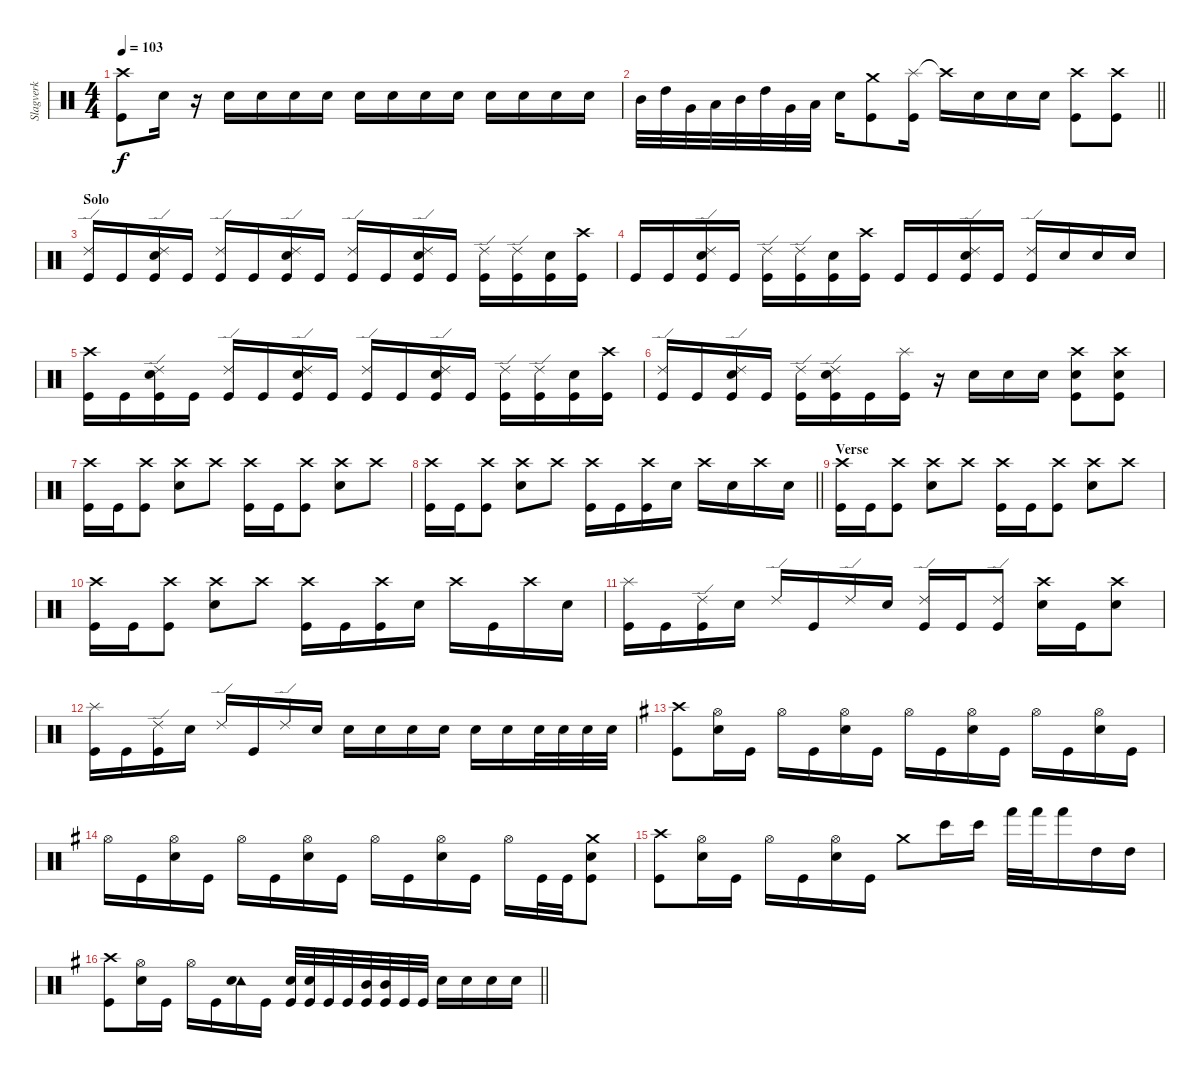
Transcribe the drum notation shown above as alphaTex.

\track ("Slagverk" "Slagverk") {instrument percussion}
\staff {score}
\articulation defaults
\ts (4 4)
\tempo 103
\clef neutral
\ks c
("Crash high (hit)" "Kick (hit)").8{dy f} "Electric Snare (hit)".16 r.16 "Electric Snare (hit)".16 "Electric Snare (hit)".16 "Electric Snare (hit)".16 "Electric Snare (hit)".16 "Electric Snare (hit)".16 "Electric Snare (hit)".16 "Electric Snare (hit)".16 "Electric Snare (hit)".16 "Electric Snare (hit)".16 "Electric Snare (hit)".16 "Electric Snare (hit)".16 "Electric Snare (hit)".16 |
\barLineRight lightlight "Mid Tom (hit)".32 "High Tom (hit)".32 "Very Low Tom (hit)".32 "Low Floor Tom (hit)".32 "Mid Tom (hit)".32 "High Tom (hit)".32 "Very Low Tom (hit)".32 "Low Floor Tom (hit)".32 "Electric Snare (hit)".16
("Crash medium (hit)" "Kick (hit)").8 ("Splash (hit)" "Kick (hit)").16 "Crash high (hit)"{t}.16 "Electric Snare (hit)".16 "Electric Snare (hit)".16 "Electric Snare (hit)".16 ("Crash high (hit)" "Kick (hit)").8 ("Crash high (hit)" "Kick (hit)").8 |
\section ("" "Solo")
("Ride (edge) 2" "Kick (hit)").16 "Kick (hit)".16 ("Ride (edge) 2" "Electric Snare (hit)" "Kick (hit)").16 "Kick (hit)".16 ("Ride (edge) 2" "Kick (hit)").16 "Kick (hit)".16 ("Ride (edge) 2" "Electric Snare (hit)" "Kick (hit)").16 "Kick (hit)".16 ("Ride (edge) 2" "Kick (hit)").16 "Kick (hit)".16 ("Ride (edge) 2" "Electric Snare (hit)" "Kick (hit)").16 "Kick (hit)".16 ("Ride (edge) 2" "Kick (hit)").16 ("Ride (edge) 2" "Kick (hit)").16 ("Electric Snare (hit)" "Kick (hit)").16 ("Crash high (hit)" "Kick (hit)").16 |
"Kick (hit)".16 "Kick (hit)".16 ("Ride (edge) 2" "Electric Snare (hit)" "Kick (hit)").16 "Kick (hit)".16 ("Ride (edge) 2" "Kick (hit)").16 ("Ride (edge) 2" "Kick (hit)").16 ("Electric Snare (hit)" "Kick (hit)").16 ("Crash high (hit)" "Kick (hit)").16 "Kick (hit)".16 "Kick (hit)".16 ("Ride (edge) 2" "Electric Snare (hit)" "Kick (hit)").16 "Kick (hit)".16 ("Ride (edge) 2" "Kick (hit)").16 "Electric Snare (hit)".16 "Electric Snare (hit)".16 "Electric Snare (hit)".16 |
("Crash high (hit)" "Kick (hit)").16 "Kick (hit)".16 ("Ride (edge) 2" "Electric Snare (hit)" "Kick (hit)").16 "Kick (hit)".16 ("Ride (edge) 2" "Kick (hit)").16 "Kick (hit)".16 ("Ride (edge) 2" "Electric Snare (hit)" "Kick (hit)").16 "Kick (hit)".16 ("Ride (edge) 2" "Kick (hit)").16 "Kick (hit)".16 ("Ride (edge) 2" "Electric Snare (hit)" "Kick (hit)").16 "Kick (hit)".16 ("Ride (edge) 2" "Kick (hit)").16 ("Ride (edge) 2" "Kick (hit)").16 ("Electric Snare (hit)" "Kick (hit)").16 ("Crash high (hit)" "Kick (hit)").16 |
("Ride (edge) 2" "Kick (hit)").16 "Kick (hit)".16 ("Ride (edge) 2" "Electric Snare (hit)" "Kick (hit)").16 "Kick (hit)".16 ("Ride (edge) 2" "Kick (hit)").16 ("Ride (edge) 2" "Electric Snare (hit)" "Kick (hit)").16 "Kick (hit)".16 ("Splash (hit)" "Kick (hit)").16 r.16 "Electric Snare (hit)".16 "Electric Snare (hit)".16 "Electric Snare (hit)".16 ("Crash high (hit)" "Electric Snare (hit)" "Kick (hit)").8 ("Crash high (hit)" "Electric Snare (hit)" "Kick (hit)").8 |
("Crash high (hit)" "Kick (hit)").16 "Kick (hit)".16 ("Crash high (hit)" "Kick (hit)").8 ("Crash high (hit)" "Electric Snare (hit)").8 "Crash high (hit)".8 ("Crash high (hit)" "Kick (hit)").16 "Kick (hit)".16 ("Crash high (hit)" "Kick (hit)").8 ("Crash high (hit)" "Electric Snare (hit)").8 "Crash high (hit)".8 |
\barLineRight lightlight
("Crash high (hit)" "Kick (hit)").16 "Kick (hit)".16 ("Crash high (hit)" "Kick (hit)").8 ("Crash high (hit)" "Electric Snare (hit)").8 "Crash high (hit)".8 ("Crash high (hit)" "Kick (hit)").16 "Kick (hit)".16 ("Crash high (hit)" "Kick (hit)").16 "Electric Snare (hit)".16 "Crash high (hit)".16 "Electric Snare (hit)".16 "Crash high (hit)".16 "Electric Snare (hit)".16 |
\section ("" "Verse")
("Crash high (hit)" "Kick (hit)").16 "Kick (hit)".16 ("Crash high (hit)" "Kick (hit)").8 ("Crash high (hit)" "Electric Snare (hit)").8 "Crash high (hit)".8 ("Crash high (hit)" "Kick (hit)").16 "Kick (hit)".16 ("Crash high (hit)" "Kick (hit)").8 ("Crash high (hit)" "Electric Snare (hit)").8 "Crash high (hit)".8 |
("Crash high (hit)" "Kick (hit)").16 "Kick (hit)".16 ("Crash high (hit)" "Kick (hit)").8 ("Crash high (hit)" "Electric Snare (hit)").8 "Crash high (hit)".8 ("Crash high (hit)" "Kick (hit)").16 "Kick (hit)".16 ("Crash high (hit)" "Kick (hit)").16 "Electric Snare (hit)".16 "Crash high (hit)".16 "Kick (hit)".16 "Crash high (hit)".16 "Electric Snare (hit)".16 |
("Splash (hit)" "Kick (hit)").16 "Kick (hit)".16 ("Ride (edge) 2" "Kick (hit)").16 "Electric Snare (hit)".16 "Ride (edge) 2".16 "Kick (hit)".16 "Ride (edge) 2".16 "Electric Snare (hit)".16 ("Ride (edge) 2" "Kick (hit)").16 "Kick (hit)".16 ("Ride (edge) 2" "Kick (hit)").8 ("Crash high (hit)" "Electric Snare (hit)").16 "Kick (hit)".16 ("Crash high (hit)" "Electric Snare (hit)").8 |
("Splash (hit)" "Kick (hit)").16 "Kick (hit)".16 ("Ride (edge) 2" "Kick (hit)").16 "Electric Snare (hit)".16 "Ride (edge) 2".16 "Kick (hit)".16 "Ride (edge) 2".16 "Electric Snare (hit)".16 "Electric Snare (hit)".16 "Electric Snare (hit)".16 "Electric Snare (hit)".16 "Electric Snare (hit)".16 "Electric Snare (hit)".16 "Electric Snare (hit)".16 "Electric Snare (hit)".32 "Electric Snare (hit)".32 "Electric Snare (hit)".32 "Electric Snare (hit)".32 |
\ks g
("Crash high (hit)" "Kick (hit)").8 ("Hi-Hat (open)" "Electric Snare (hit)").16 "Kick (hit)".16 "Hi-Hat (open)".16 "Kick (hit)".16 ("Hi-Hat (open)" "Electric Snare (hit)").16 "Kick (hit)".16 "Hi-Hat (open)".16 "Kick (hit)".16 ("Hi-Hat (open)" "Electric Snare (hit)").16 "Kick (hit)".16 "Hi-Hat (open)".16 "Kick (hit)".16 ("Hi-Hat (open)" "Electric Snare (hit)").16 "Kick (hit)".16 |
"Hi-Hat (open)".16 "Kick (hit)".16 ("Hi-Hat (open)" "Electric Snare (hit)").16 "Kick (hit)".16 "Hi-Hat (open)".16 "Kick (hit)".16 ("Hi-Hat (open)" "Electric Snare (hit)").16 "Kick (hit)".16 "Hi-Hat (open)".16 "Kick (hit)".16 ("Hi-Hat (open)" "Electric Snare (hit)").16 "Kick (hit)".16 "Hi-Hat (open)".16 "Kick (hit)".32 "Kick (hit)".32 ("Crash medium (hit)" "Electric Snare (hit)" "Kick (hit)").8 |
("Crash high (hit)" "Kick (hit)").8 ("Hi-Hat (open)" "Electric Snare (hit)").16 "Kick (hit)".16 "Hi-Hat (open)".16 "Kick (hit)".16 ("Hi-Hat (open)" "Electric Snare (hit)").16 "Kick (hit)".16 "Crash medium (hit)".8 "Bongo High (hit)".16 "Bongo High (hit)".16 "Hand (hit)".32 "Hand (hit)".32 "Hand (hit)".16 "High Tom (hit)".16 "High Tom (hit)".16 |
\barLineRight lightlight
("Crash high (hit)" "Kick (hit)").8 ("Hi-Hat (open)" "Electric Snare (hit)").16 "Kick (hit)".16 "Hi-Hat (open)".16 "Kick (hit)".16 ("Tambourine (hit)" "Electric Snare (hit)").16 "Kick (hit)".16 ("Electric Snare (hit)" "Kick (hit)").32 ("Electric Snare (hit)" "Kick (hit)").32 "Kick (hit)".32 "Kick (hit)".32 ("Mid Tom (hit)" "Kick (hit)").32 ("Mid Tom (hit)" "Kick (hit)").32 "Kick (hit)".32 "Kick (hit)".32 "Electric Snare (hit)".16 "Electric Snare (hit)".16 "Electric Snare (hit)".16 "Electric Snare (hit)".16
